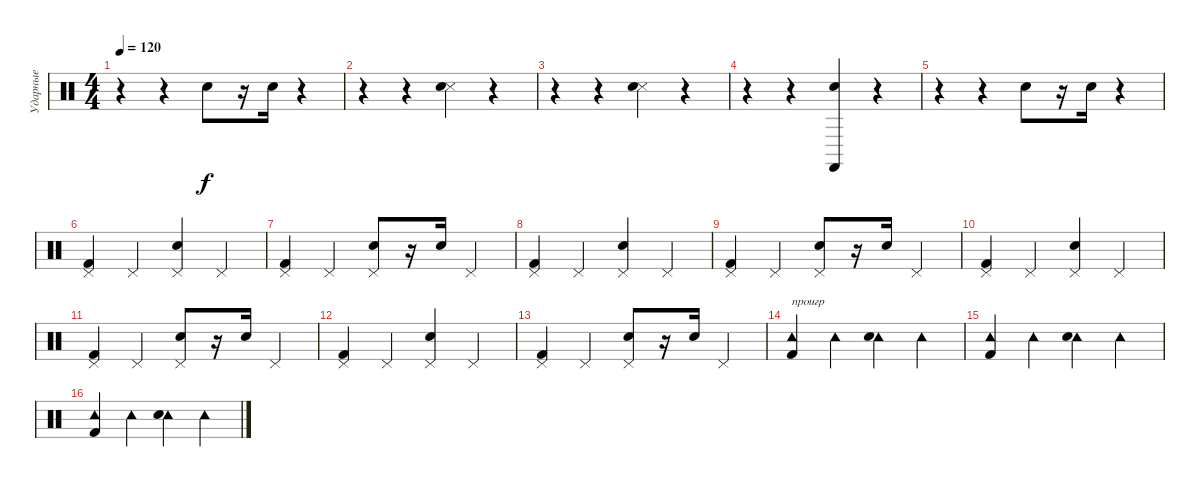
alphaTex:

\track ("Ударные" "Ударные") {instrument percussion}
\staff {score}
\articulation defaults
\ts (4 4)
\tempo 120
\clef neutral
\ks c
r.4{dy f} r.4 "Metronome (bell)".8 r.16 "Metronome (bell)".16 r.4 |
r.4 r.4 ("Metronome (hit)" "Metronome (bell)").4 r.4 |
r.4 r.4 ("Metronome (hit)" "Metronome (bell)").4 r.4 |
r.4 r.4 ("Castanets (hit)" "Metronome (bell)").4 r.4 |
r.4 r.4 "Metronome (bell)".8 r.16 "Metronome (bell)".16 r.4 |
("Pedal Hi-Hat (hit)" "Kick (hit) 2").4 "Pedal Hi-Hat (hit)".4 ("Pedal Hi-Hat (hit)" "Electric Snare (hit)").4 "Pedal Hi-Hat (hit)".4 |
("Pedal Hi-Hat (hit)" "Kick (hit) 2").4 "Pedal Hi-Hat (hit)".4 ("Pedal Hi-Hat (hit)" "Electric Snare (hit)").8 r.16 "Electric Snare (hit)".16 "Pedal Hi-Hat (hit)".4 |
("Pedal Hi-Hat (hit)" "Kick (hit) 2").4 "Pedal Hi-Hat (hit)".4 ("Pedal Hi-Hat (hit)" "Electric Snare (hit)").4 "Pedal Hi-Hat (hit)".4 |
("Pedal Hi-Hat (hit)" "Kick (hit) 2").4 "Pedal Hi-Hat (hit)".4 ("Pedal Hi-Hat (hit)" "Electric Snare (hit)").8 r.16 "Electric Snare (hit)".16 "Pedal Hi-Hat (hit)".4 |
("Pedal Hi-Hat (hit)" "Kick (hit) 2").4 "Pedal Hi-Hat (hit)".4 ("Pedal Hi-Hat (hit)" "Electric Snare (hit)").4 "Pedal Hi-Hat (hit)".4 |
("Pedal Hi-Hat (hit)" "Kick (hit) 2").4 "Pedal Hi-Hat (hit)".4 ("Pedal Hi-Hat (hit)" "Electric Snare (hit)").8 r.16 "Electric Snare (hit)".16 "Pedal Hi-Hat (hit)".4 |
("Pedal Hi-Hat (hit)" "Kick (hit) 2").4 "Pedal Hi-Hat (hit)".4 ("Pedal Hi-Hat (hit)" "Electric Snare (hit)").4 "Pedal Hi-Hat (hit)".4 |
("Pedal Hi-Hat (hit)" "Kick (hit) 2").4 "Pedal Hi-Hat (hit)".4 ("Pedal Hi-Hat (hit)" "Electric Snare (hit)").8 r.16 "Electric Snare (hit)".16 "Pedal Hi-Hat (hit)".4 |
("Tambourine (hit)" "Kick (hit) 2").4{txt "проигр"} "Tambourine (hit)".4 ("Tambourine (hit)" "Electric Snare (hit)").4 "Tambourine (hit)".4 |
("Tambourine (hit)" "Kick (hit) 2").4 "Tambourine (hit)".4 ("Tambourine (hit)" "Electric Snare (hit)").4 "Tambourine (hit)".4 |
("Tambourine (hit)" "Kick (hit) 2").4 "Tambourine (hit)".4 ("Tambourine (hit)" "Electric Snare (hit)").4 "Tambourine (hit)".4
